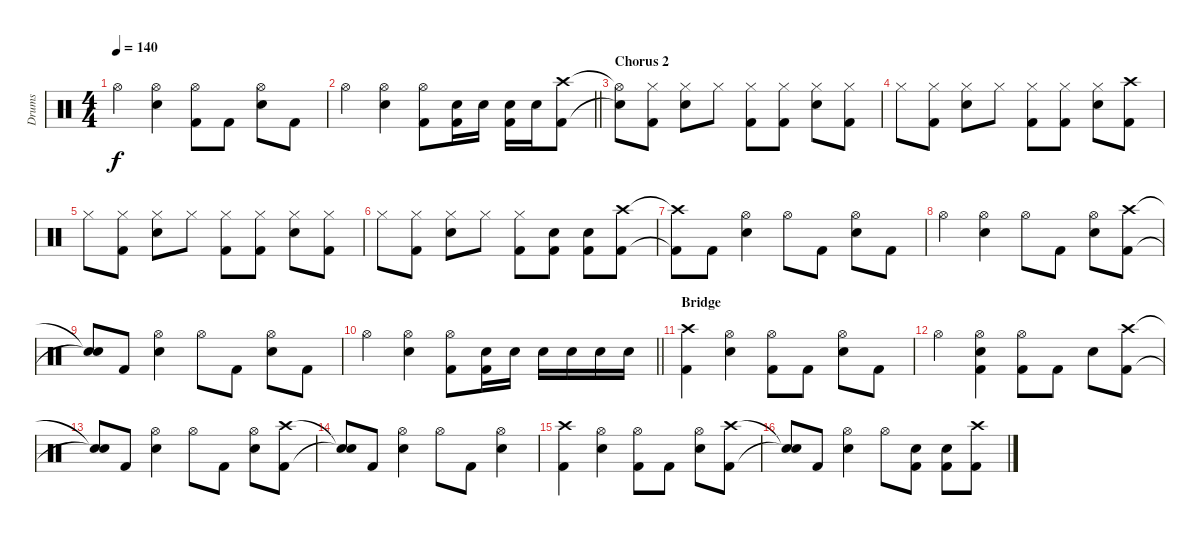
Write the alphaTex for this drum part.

\track ("Drums" "Drums") {instrument percussion}
\staff {score}
\articulation defaults
\ts (4 4)
\tempo 140
\clef neutral
\ks c "Hi-Hat (open)".4{dy f}
("Hi-Hat (open)" "Electric Snare (hit)").4 ("Hi-Hat (open)" "Kick (hit) 2").8 "Kick (hit) 2".8 ("Hi-Hat (open)" "Electric Snare (hit)").8 "Kick (hit) 2".8 |
\barLineRight lightlight "Hi-Hat (open)".4
("Hi-Hat (open)" "Electric Snare (hit)").4 ("Hi-Hat (open)" "Kick (hit) 2").8 ("Electric Snare (hit)" "Kick (hit) 2").16 "Electric Snare (hit)".16 ("Electric Snare (hit)" "Kick (hit) 2").16 "Electric Snare (hit)".16 ("Crash high (hit)" "Kick (hit) 2").8 |
\section ("" "Chorus 2")
("Hi-Hat (open)"{t} "Snare (hit)"{t}).8 ("Hi-Hat (closed)" "Kick (hit) 2").8 ("Hi-Hat (closed)" "Electric Snare (hit)").8 "Hi-Hat (closed)".8 ("Hi-Hat (closed)" "Kick (hit) 2").8 ("Hi-Hat (closed)" "Kick (hit) 2").8 ("Hi-Hat (closed)" "Electric Snare (hit)").8 ("Hi-Hat (closed)" "Kick (hit) 2").8 |
"Hi-Hat (closed)".8 ("Hi-Hat (closed)" "Kick (hit) 2").8 ("Hi-Hat (closed)" "Electric Snare (hit)").8 "Hi-Hat (closed)".8 ("Hi-Hat (closed)" "Kick (hit) 2").8 ("Hi-Hat (closed)" "Kick (hit) 2").8 ("Hi-Hat (closed)" "Electric Snare (hit)").8 ("Crash high (hit)" "Kick (hit) 2").8 |
"Hi-Hat (closed)".8 ("Hi-Hat (closed)" "Kick (hit) 2").8 ("Hi-Hat (closed)" "Electric Snare (hit)").8 "Hi-Hat (closed)".8 ("Hi-Hat (closed)" "Kick (hit) 2").8 ("Hi-Hat (closed)" "Kick (hit) 2").8 ("Hi-Hat (closed)" "Electric Snare (hit)").8 ("Hi-Hat (closed)" "Kick (hit) 2").8 |
"Hi-Hat (closed)".8 ("Hi-Hat (closed)" "Kick (hit) 2").8 ("Hi-Hat (closed)" "Electric Snare (hit)").8 "Hi-Hat (closed)".8 ("Hi-Hat (closed)" "Kick (hit) 2").8 ("Electric Snare (hit)" "Kick (hit) 2").8 ("Electric Snare (hit)" "Kick (hit) 2").8 ("Crash high (hit)" "Kick (hit) 2").8 |
("Crash high (hit)"{t} "Kick (hit) 2"{t}).8 "Kick (hit) 2".8 ("Hi-Hat (open)" "Electric Snare (hit)").4 "Hi-Hat (open)".8 "Kick (hit) 2".8 ("Hi-Hat (open)" "Electric Snare (hit)").8 "Kick (hit) 2".8 |
"Hi-Hat (open)".4 ("Hi-Hat (open)" "Electric Snare (hit)").4 "Hi-Hat (open)".8 "Kick (hit) 2".8 ("Hi-Hat (open)" "Electric Snare (hit)").8 ("Crash high (hit)" "Kick (hit) 2").8 |
("Snare (hit)"{t} "Snare (hit)"{t}).8 "Kick (hit) 2".8 ("Hi-Hat (open)" "Electric Snare (hit)").4 "Hi-Hat (open)".8 "Kick (hit) 2".8 ("Hi-Hat (open)" "Electric Snare (hit)").8 "Kick (hit) 2".8 |
\barLineRight lightlight "Hi-Hat (open)".4
("Hi-Hat (open)" "Electric Snare (hit)").4 ("Hi-Hat (open)" "Kick (hit) 2").8 ("Electric Snare (hit)" "Kick (hit) 2").16 "Electric Snare (hit)".16 "Electric Snare (hit)".16 "Electric Snare (hit)".16 "Electric Snare (hit)".16 "Electric Snare (hit)".16 |
\section ("" "Bridge")
("Crash high (hit)" "Kick (hit) 2").4 ("Hi-Hat (open)" "Electric Snare (hit)").4 ("Hi-Hat (open)" "Kick (hit) 2").8 "Kick (hit) 2".8 ("Hi-Hat (open)" "Electric Snare (hit)").8 "Kick (hit) 2".8 |
"Hi-Hat (open)".4 ("Hi-Hat (open)" "Electric Snare (hit)" "Kick (hit) 2").4 ("Hi-Hat (open)" "Kick (hit) 2").8 "Kick (hit) 2".8 "Electric Snare (hit)".8 ("Crash high (hit)" "Kick (hit) 2").8 |
("Snare (hit)"{t} "Snare (hit)"{t}).8 "Kick (hit) 2".8 ("Hi-Hat (open)" "Electric Snare (hit)").4 "Hi-Hat (open)".8 "Kick (hit) 2".8 ("Hi-Hat (open)" "Electric Snare (hit)").8 ("Crash high (hit)" "Kick (hit) 2").8 |
("Snare (hit)"{t} "Snare (hit)"{t}).8 "Kick (hit) 2".8 ("Hi-Hat (open)" "Electric Snare (hit)").4 "Hi-Hat (open)".8 "Kick (hit) 2".8 ("Hi-Hat (open)" "Electric Snare (hit)").4 |
("Crash high (hit)" "Kick (hit) 2").4 ("Hi-Hat (open)" "Electric Snare (hit)").4 ("Hi-Hat (open)" "Kick (hit) 2").8 "Kick (hit) 2".8 ("Hi-Hat (open)" "Electric Snare (hit)").8 ("Crash high (hit)" "Kick (hit) 2").8 |
("Snare (hit)"{t} "Snare (hit)"{t}).8 "Kick (hit) 2".8 ("Hi-Hat (open)" "Electric Snare (hit)").4 "Hi-Hat (open)".8 ("Electric Snare (hit)" "Kick (hit) 2").8 ("Electric Snare (hit)" "Kick (hit) 2").8 ("Crash high (hit)" "Kick (hit) 2").8
